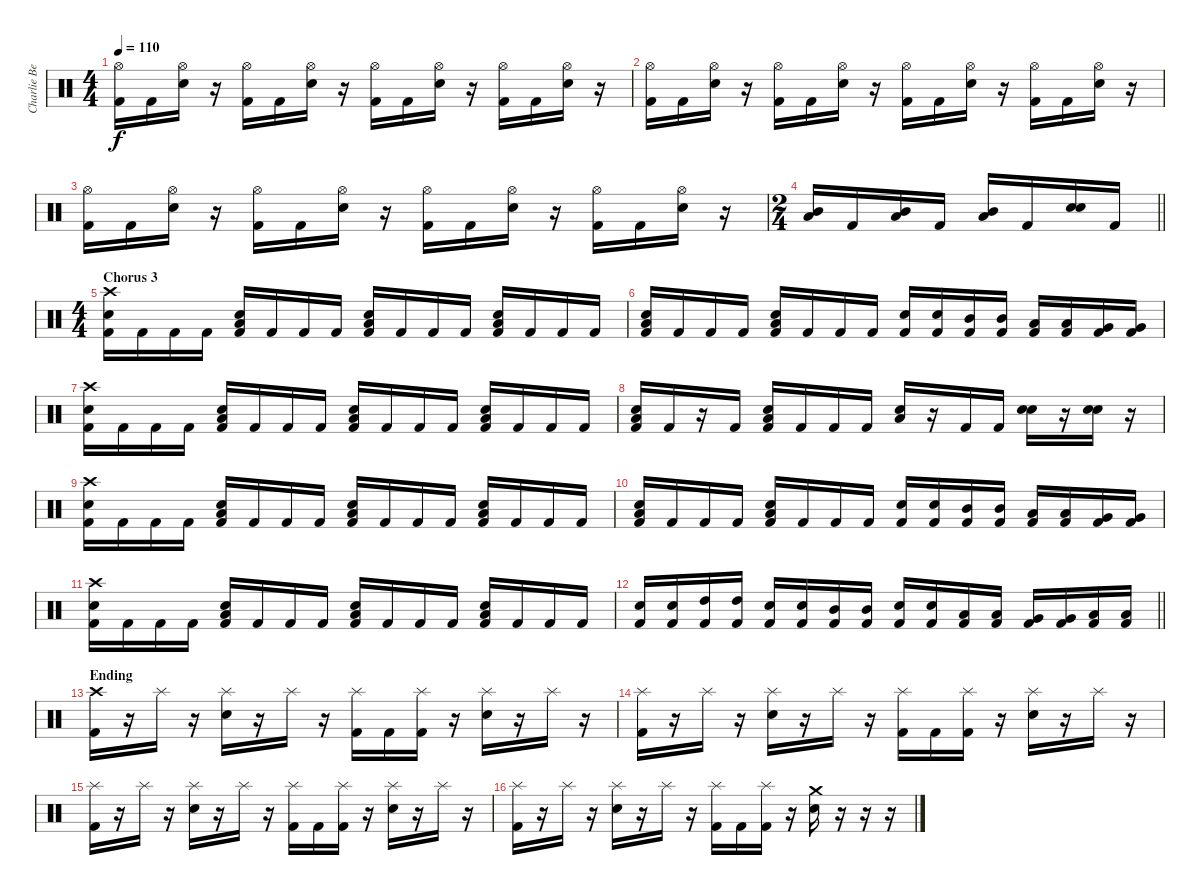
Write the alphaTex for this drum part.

\track ("Charlie Benante" "Charlie Be") {instrument percussion}
\staff {score}
\articulation defaults
\ts (4 4)
\tempo 110
\clef neutral
\ks c
("Hi-Hat (open)" "Kick (hit) 2").16{dy f} "Kick (hit) 2".16 ("Hi-Hat (open)" "Electric Snare (hit)").16 r.16 ("Hi-Hat (open)" "Kick (hit) 2").16 "Kick (hit) 2".16 ("Hi-Hat (open)" "Electric Snare (hit)").16 r.16 ("Hi-Hat (open)" "Kick (hit) 2").16 "Kick (hit) 2".16 ("Hi-Hat (open)" "Electric Snare (hit)").16 r.16 ("Hi-Hat (open)" "Kick (hit) 2").16 "Kick (hit) 2".16 ("Hi-Hat (open)" "Electric Snare (hit)").16 r.16 |
("Hi-Hat (open)" "Kick (hit) 2").16 "Kick (hit) 2".16 ("Hi-Hat (open)" "Electric Snare (hit)").16 r.16 ("Hi-Hat (open)" "Kick (hit) 2").16 "Kick (hit) 2".16 ("Hi-Hat (open)" "Electric Snare (hit)").16 r.16 ("Hi-Hat (open)" "Kick (hit) 2").16 "Kick (hit) 2".16 ("Hi-Hat (open)" "Electric Snare (hit)").16 r.16 ("Hi-Hat (open)" "Kick (hit) 2").16 "Kick (hit) 2".16 ("Hi-Hat (open)" "Electric Snare (hit)").16 r.16 |
("Hi-Hat (open)" "Kick (hit) 2").16 "Kick (hit) 2".16 ("Hi-Hat (open)" "Electric Snare (hit)").16 r.16 ("Hi-Hat (open)" "Kick (hit) 2").16 "Kick (hit) 2".16 ("Hi-Hat (open)" "Electric Snare (hit)").16 r.16 ("Hi-Hat (open)" "Kick (hit) 2").16 "Kick (hit) 2".16 ("Hi-Hat (open)" "Electric Snare (hit)").16 r.16 ("Hi-Hat (open)" "Kick (hit) 2").16 "Kick (hit) 2".16 ("Hi-Hat (open)" "Electric Snare (hit)").16 r.16 |
\ts (2 4)
\barLineRight lightlight
("Low Tom (hit)" "Mid Tom (hit)").16 "Kick (hit) 2".16 ("Low Tom (hit)" "Mid Tom (hit)").16 "Kick (hit) 2".16 ("Low Tom (hit)" "Mid Tom (hit)").16 "Kick (hit) 2".16 ("Snare (hit) 2" "Electric Snare (hit)").16 "Kick (hit) 2".16 |
\ts (4 4)
\section ("" "Chorus 3")
("Crash high (hit)" "Electric Snare (hit)" "Kick (hit) 2").16 "Kick (hit) 2".16 "Kick (hit) 2".16 "Kick (hit) 2".16 ("Low Floor Tom (hit)" "Electric Snare (hit)" "Kick (hit) 2").16 "Kick (hit) 2".16 "Kick (hit) 2".16 "Kick (hit) 2".16 ("Low Floor Tom (hit)" "Electric Snare (hit)" "Kick (hit) 2").16 "Kick (hit) 2".16 "Kick (hit) 2".16 "Kick (hit) 2".16 ("Low Floor Tom (hit)" "Electric Snare (hit)" "Kick (hit) 2").16 "Kick (hit) 2".16 "Kick (hit) 2".16 "Kick (hit) 2".16 |
("Low Floor Tom (hit)" "Electric Snare (hit)" "Kick (hit) 2").16 "Kick (hit) 2".16 "Kick (hit) 2".16 "Kick (hit) 2".16 ("Low Floor Tom (hit)" "Electric Snare (hit)" "Kick (hit) 2").16 "Kick (hit) 2".16 "Kick (hit) 2".16 "Kick (hit) 2".16 ("Electric Snare (hit)" "Kick (hit) 2").16 ("Electric Snare (hit)" "Kick (hit) 2").16 ("Mid Tom (hit)" "Kick (hit) 2").16 ("Mid Tom (hit)" "Kick (hit) 2").16 ("Low Tom (hit)" "Kick (hit) 2").16 ("Low Tom (hit)" "Kick (hit) 2").16 ("Very Low Tom (hit)" "Kick (hit) 2").16 ("Very Low Tom (hit)" "Kick (hit) 2").16 |
("Crash high (hit)" "Electric Snare (hit)" "Kick (hit) 2").16 "Kick (hit) 2".16 "Kick (hit) 2".16 "Kick (hit) 2".16 ("Low Floor Tom (hit)" "Electric Snare (hit)" "Kick (hit) 2").16 "Kick (hit) 2".16 "Kick (hit) 2".16 "Kick (hit) 2".16 ("Low Floor Tom (hit)" "Electric Snare (hit)" "Kick (hit) 2").16 "Kick (hit) 2".16 "Kick (hit) 2".16 "Kick (hit) 2".16 ("Low Floor Tom (hit)" "Electric Snare (hit)" "Kick (hit) 2").16 "Kick (hit) 2".16 "Kick (hit) 2".16 "Kick (hit) 2".16 |
("Low Floor Tom (hit)" "Electric Snare (hit)" "Kick (hit) 2").16 "Kick (hit) 2".16 r.16 "Kick (hit) 2".16 ("Low Floor Tom (hit)" "Electric Snare (hit)" "Kick (hit) 2").16 "Kick (hit) 2".16 "Kick (hit) 2".16 "Kick (hit) 2".16 ("Low Floor Tom (hit)" "Electric Snare (hit)").16 r.16 "Kick (hit) 2".16 "Kick (hit) 2".16 ("Snare (hit) 2" "Electric Snare (hit)").16 r.16 ("Snare (hit) 2" "Electric Snare (hit)").16 r.16 |
("Crash high (hit)" "Electric Snare (hit)" "Kick (hit) 2").16 "Kick (hit) 2".16 "Kick (hit) 2".16 "Kick (hit) 2".16 ("Low Floor Tom (hit)" "Electric Snare (hit)" "Kick (hit) 2").16 "Kick (hit) 2".16 "Kick (hit) 2".16 "Kick (hit) 2".16 ("Low Floor Tom (hit)" "Electric Snare (hit)" "Kick (hit) 2").16 "Kick (hit) 2".16 "Kick (hit) 2".16 "Kick (hit) 2".16 ("Low Floor Tom (hit)" "Electric Snare (hit)" "Kick (hit) 2").16 "Kick (hit) 2".16 "Kick (hit) 2".16 "Kick (hit) 2".16 |
("Low Floor Tom (hit)" "Electric Snare (hit)" "Kick (hit) 2").16 "Kick (hit) 2".16 "Kick (hit) 2".16 "Kick (hit) 2".16 ("Low Floor Tom (hit)" "Electric Snare (hit)" "Kick (hit) 2").16 "Kick (hit) 2".16 "Kick (hit) 2".16 "Kick (hit) 2".16 ("Electric Snare (hit)" "Kick (hit) 2").16 ("Electric Snare (hit)" "Kick (hit) 2").16 ("Mid Tom (hit)" "Kick (hit) 2").16 ("Mid Tom (hit)" "Kick (hit) 2").16 ("Low Tom (hit)" "Kick (hit) 2").16 ("Low Tom (hit)" "Kick (hit) 2").16 ("Very Low Tom (hit)" "Kick (hit) 2").16 ("Very Low Tom (hit)" "Kick (hit) 2").16 |
("Crash high (hit)" "Electric Snare (hit)" "Kick (hit) 2").16 "Kick (hit) 2".16 "Kick (hit) 2".16 "Kick (hit) 2".16 ("Low Floor Tom (hit)" "Electric Snare (hit)" "Kick (hit) 2").16 "Kick (hit) 2".16 "Kick (hit) 2".16 "Kick (hit) 2".16 ("Low Floor Tom (hit)" "Electric Snare (hit)" "Kick (hit) 2").16 "Kick (hit) 2".16 "Kick (hit) 2".16 "Kick (hit) 2".16 ("Low Floor Tom (hit)" "Electric Snare (hit)" "Kick (hit) 2").16 "Kick (hit) 2".16 "Kick (hit) 2".16 "Kick (hit) 2".16 |
\barLineRight lightlight
("Electric Snare (hit)" "Kick (hit) 2").16 ("Electric Snare (hit)" "Kick (hit) 2").16 ("High Tom (hit)" "Kick (hit) 2").16 ("High Tom (hit)" "Kick (hit) 2").16 ("Electric Snare (hit)" "Kick (hit) 2").16 ("Electric Snare (hit)" "Kick (hit) 2").16 ("Mid Tom (hit)" "Kick (hit) 2").16 ("Mid Tom (hit)" "Kick (hit) 2").16 ("Electric Snare (hit)" "Kick (hit) 2").16 ("Electric Snare (hit)" "Kick (hit) 2").16 ("Low Tom (hit)" "Kick (hit) 2").16 ("Low Tom (hit)" "Kick (hit) 2").16 ("Very Low Tom (hit)" "Kick (hit) 2").16 ("Very Low Tom (hit)" "Kick (hit) 2").16 ("Low Floor Tom (hit)" "Kick (hit) 2").16 ("Low Floor Tom (hit)" "Kick (hit) 2").16 |
\section ("" "Ending")
("Crash high (hit)" "Kick (hit) 2").16 r.16 "Splash (hit)".16 r.16 ("Splash (hit)" "Electric Snare (hit)").16 r.16 "Splash (hit)".16 r.16 ("Splash (hit)" "Kick (hit) 2").16 "Kick (hit) 2".16 ("Splash (hit)" "Kick (hit) 2").16 r.16 ("Splash (hit)" "Electric Snare (hit)").16 r.16 "Splash (hit)".16 r.16 |
("Splash (hit)" "Kick (hit) 2").16 r.16 "Splash (hit)".16 r.16 ("Splash (hit)" "Electric Snare (hit)").16 r.16 "Splash (hit)".16 r.16 ("Splash (hit)" "Kick (hit) 2").16 "Kick (hit) 2".16 ("Splash (hit)" "Kick (hit) 2").16 r.16 ("Splash (hit)" "Electric Snare (hit)").16 r.16 "Splash (hit)".16 r.16 |
("Splash (hit)" "Kick (hit) 2").16 r.16 "Splash (hit)".16 r.16 ("Splash (hit)" "Electric Snare (hit)").16 r.16 "Splash (hit)".16 r.16 ("Splash (hit)" "Kick (hit) 2").16 "Kick (hit) 2".16 ("Splash (hit)" "Kick (hit) 2").16 r.16 ("Splash (hit)" "Electric Snare (hit)").16 r.16 "Splash (hit)".16 r.16 |
("Splash (hit)" "Kick (hit) 2").16 r.16 "Splash (hit)".16 r.16 ("Splash (hit)" "Electric Snare (hit)").16 r.16 "Splash (hit)".16 r.16 ("Splash (hit)" "Kick (hit) 2").16 "Kick (hit) 2".16 ("Splash (hit)" "Kick (hit) 2").16 r.16 ("Crash medium (hit)" "Electric Snare (hit)").16 r.16 r.16 r.16
